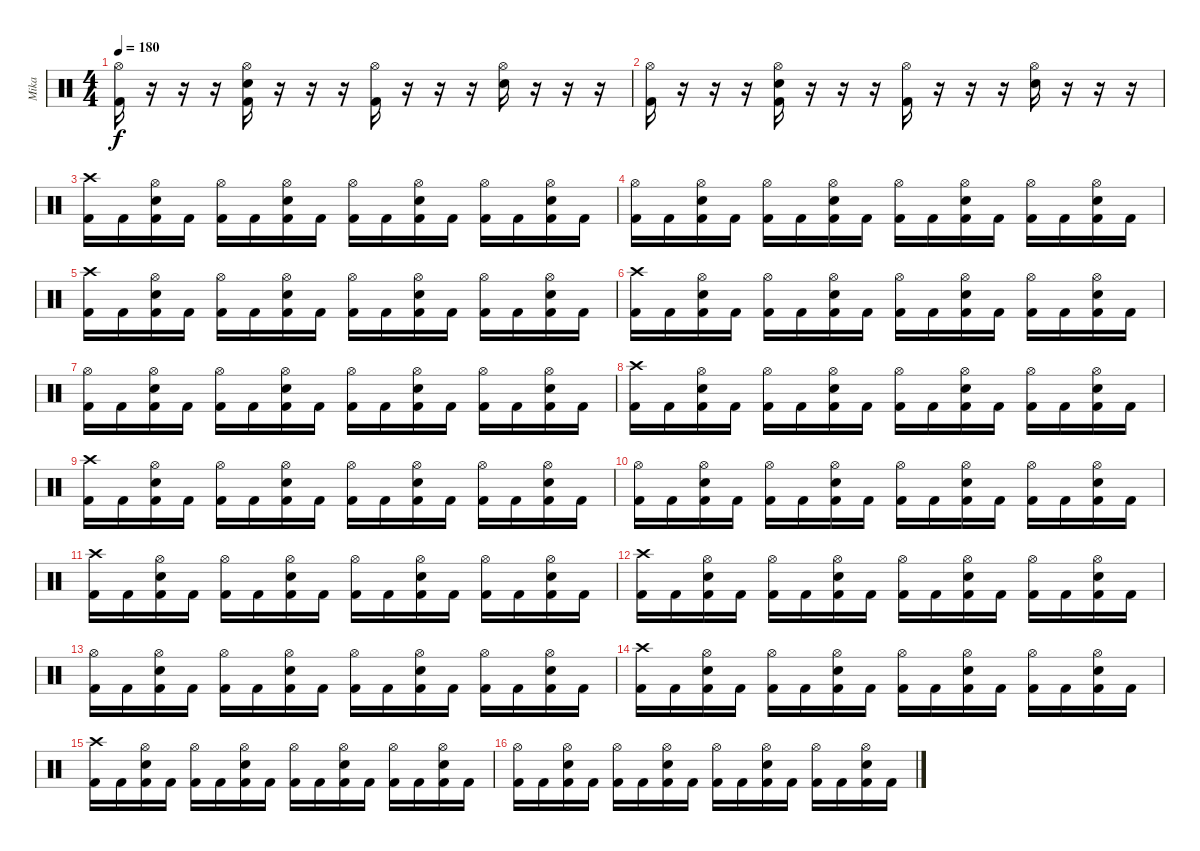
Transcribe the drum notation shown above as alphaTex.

\track ("Mika" "Mika") {instrument percussion}
\staff {score}
\articulation defaults
\ts (4 4)
\tempo 180
\clef neutral
\ks c
("Hi-Hat (open)" "Kick (hit) 2").16{dy f} r.16 r.16 r.16 ("Hi-Hat (open)" "Electric Snare (hit)" "Kick (hit) 2").16 r.16 r.16 r.16 ("Hi-Hat (open)" "Kick (hit) 2").16 r.16 r.16 r.16 ("Hi-Hat (open)" "Electric Snare (hit)").16 r.16 r.16 r.16 |
("Hi-Hat (open)" "Kick (hit) 2").16 r.16 r.16 r.16 ("Hi-Hat (open)" "Electric Snare (hit)" "Kick (hit) 2").16 r.16 r.16 r.16 ("Hi-Hat (open)" "Kick (hit) 2").16 r.16 r.16 r.16 ("Hi-Hat (open)" "Electric Snare (hit)").16 r.16 r.16 r.16 |
("Crash high (hit)" "Kick (hit) 2").16 "Kick (hit) 2".16 ("Hi-Hat (open)" "Electric Snare (hit)" "Kick (hit) 2").16 "Kick (hit) 2".16 ("Hi-Hat (open)" "Kick (hit) 2").16 "Kick (hit) 2".16 ("Hi-Hat (open)" "Electric Snare (hit)" "Kick (hit) 2").16 "Kick (hit) 2".16 ("Hi-Hat (open)" "Kick (hit) 2").16 "Kick (hit) 2".16 ("Hi-Hat (open)" "Electric Snare (hit)" "Kick (hit) 2").16 "Kick (hit) 2".16 ("Hi-Hat (open)" "Kick (hit) 2").16 "Kick (hit) 2".16 ("Hi-Hat (open)" "Electric Snare (hit)" "Kick (hit) 2").16 "Kick (hit) 2".16 |
("Hi-Hat (open)" "Kick (hit) 2").16 "Kick (hit) 2".16 ("Hi-Hat (open)" "Electric Snare (hit)" "Kick (hit) 2").16 "Kick (hit) 2".16 ("Hi-Hat (open)" "Kick (hit) 2").16 "Kick (hit) 2".16 ("Hi-Hat (open)" "Electric Snare (hit)" "Kick (hit) 2").16 "Kick (hit) 2".16 ("Hi-Hat (open)" "Kick (hit) 2").16 "Kick (hit) 2".16 ("Hi-Hat (open)" "Electric Snare (hit)" "Kick (hit) 2").16 "Kick (hit) 2".16 ("Hi-Hat (open)" "Kick (hit) 2").16 "Kick (hit) 2".16 ("Hi-Hat (open)" "Electric Snare (hit)" "Kick (hit) 2").16 "Kick (hit) 2".16 |
("Crash high (hit)" "Kick (hit) 2").16 "Kick (hit) 2".16 ("Hi-Hat (open)" "Electric Snare (hit)" "Kick (hit) 2").16 "Kick (hit) 2".16 ("Hi-Hat (open)" "Kick (hit) 2").16 "Kick (hit) 2".16 ("Hi-Hat (open)" "Electric Snare (hit)" "Kick (hit) 2").16 "Kick (hit) 2".16 ("Hi-Hat (open)" "Kick (hit) 2").16 "Kick (hit) 2".16 ("Hi-Hat (open)" "Electric Snare (hit)" "Kick (hit) 2").16 "Kick (hit) 2".16 ("Hi-Hat (open)" "Kick (hit) 2").16 "Kick (hit) 2".16 ("Hi-Hat (open)" "Electric Snare (hit)" "Kick (hit) 2").16 "Kick (hit) 2".16 |
("Crash high (hit)" "Kick (hit) 2").16 "Kick (hit) 2".16 ("Hi-Hat (open)" "Electric Snare (hit)" "Kick (hit) 2").16 "Kick (hit) 2".16 ("Hi-Hat (open)" "Kick (hit) 2").16 "Kick (hit) 2".16 ("Hi-Hat (open)" "Electric Snare (hit)" "Kick (hit) 2").16 "Kick (hit) 2".16 ("Hi-Hat (open)" "Kick (hit) 2").16 "Kick (hit) 2".16 ("Hi-Hat (open)" "Electric Snare (hit)" "Kick (hit) 2").16 "Kick (hit) 2".16 ("Hi-Hat (open)" "Kick (hit) 2").16 "Kick (hit) 2".16 ("Hi-Hat (open)" "Electric Snare (hit)" "Kick (hit) 2").16 "Kick (hit) 2".16 |
("Hi-Hat (open)" "Kick (hit) 2").16 "Kick (hit) 2".16 ("Hi-Hat (open)" "Electric Snare (hit)" "Kick (hit) 2").16 "Kick (hit) 2".16 ("Hi-Hat (open)" "Kick (hit) 2").16 "Kick (hit) 2".16 ("Hi-Hat (open)" "Electric Snare (hit)" "Kick (hit) 2").16 "Kick (hit) 2".16 ("Hi-Hat (open)" "Kick (hit) 2").16 "Kick (hit) 2".16 ("Hi-Hat (open)" "Electric Snare (hit)" "Kick (hit) 2").16 "Kick (hit) 2".16 ("Hi-Hat (open)" "Kick (hit) 2").16 "Kick (hit) 2".16 ("Hi-Hat (open)" "Electric Snare (hit)" "Kick (hit) 2").16 "Kick (hit) 2".16 |
("Crash high (hit)" "Kick (hit) 2").16 "Kick (hit) 2".16 ("Hi-Hat (open)" "Electric Snare (hit)" "Kick (hit) 2").16 "Kick (hit) 2".16 ("Hi-Hat (open)" "Kick (hit) 2").16 "Kick (hit) 2".16 ("Hi-Hat (open)" "Electric Snare (hit)" "Kick (hit) 2").16 "Kick (hit) 2".16 ("Hi-Hat (open)" "Kick (hit) 2").16 "Kick (hit) 2".16 ("Hi-Hat (open)" "Electric Snare (hit)" "Kick (hit) 2").16 "Kick (hit) 2".16 ("Hi-Hat (open)" "Kick (hit) 2").16 "Kick (hit) 2".16 ("Hi-Hat (open)" "Electric Snare (hit)" "Kick (hit) 2").16 "Kick (hit) 2".16 |
("Crash high (hit)" "Kick (hit) 2").16 "Kick (hit) 2".16 ("Hi-Hat (open)" "Electric Snare (hit)" "Kick (hit) 2").16 "Kick (hit) 2".16 ("Hi-Hat (open)" "Kick (hit) 2").16 "Kick (hit) 2".16 ("Hi-Hat (open)" "Electric Snare (hit)" "Kick (hit) 2").16 "Kick (hit) 2".16 ("Hi-Hat (open)" "Kick (hit) 2").16 "Kick (hit) 2".16 ("Hi-Hat (open)" "Electric Snare (hit)" "Kick (hit) 2").16 "Kick (hit) 2".16 ("Hi-Hat (open)" "Kick (hit) 2").16 "Kick (hit) 2".16 ("Hi-Hat (open)" "Electric Snare (hit)" "Kick (hit) 2").16 "Kick (hit) 2".16 |
("Hi-Hat (open)" "Kick (hit) 2").16 "Kick (hit) 2".16 ("Hi-Hat (open)" "Electric Snare (hit)" "Kick (hit) 2").16 "Kick (hit) 2".16 ("Hi-Hat (open)" "Kick (hit) 2").16 "Kick (hit) 2".16 ("Hi-Hat (open)" "Electric Snare (hit)" "Kick (hit) 2").16 "Kick (hit) 2".16 ("Hi-Hat (open)" "Kick (hit) 2").16 "Kick (hit) 2".16 ("Hi-Hat (open)" "Electric Snare (hit)" "Kick (hit) 2").16 "Kick (hit) 2".16 ("Hi-Hat (open)" "Kick (hit) 2").16 "Kick (hit) 2".16 ("Hi-Hat (open)" "Electric Snare (hit)" "Kick (hit) 2").16 "Kick (hit) 2".16 |
("Crash high (hit)" "Kick (hit) 2").16 "Kick (hit) 2".16 ("Hi-Hat (open)" "Electric Snare (hit)" "Kick (hit) 2").16 "Kick (hit) 2".16 ("Hi-Hat (open)" "Kick (hit) 2").16 "Kick (hit) 2".16 ("Hi-Hat (open)" "Electric Snare (hit)" "Kick (hit) 2").16 "Kick (hit) 2".16 ("Hi-Hat (open)" "Kick (hit) 2").16 "Kick (hit) 2".16 ("Hi-Hat (open)" "Electric Snare (hit)" "Kick (hit) 2").16 "Kick (hit) 2".16 ("Hi-Hat (open)" "Kick (hit) 2").16 "Kick (hit) 2".16 ("Hi-Hat (open)" "Electric Snare (hit)" "Kick (hit) 2").16 "Kick (hit) 2".16 |
("Crash high (hit)" "Kick (hit) 2").16 "Kick (hit) 2".16 ("Hi-Hat (open)" "Electric Snare (hit)" "Kick (hit) 2").16 "Kick (hit) 2".16 ("Hi-Hat (open)" "Kick (hit) 2").16 "Kick (hit) 2".16 ("Hi-Hat (open)" "Electric Snare (hit)" "Kick (hit) 2").16 "Kick (hit) 2".16 ("Hi-Hat (open)" "Kick (hit) 2").16 "Kick (hit) 2".16 ("Hi-Hat (open)" "Electric Snare (hit)" "Kick (hit) 2").16 "Kick (hit) 2".16 ("Hi-Hat (open)" "Kick (hit) 2").16 "Kick (hit) 2".16 ("Hi-Hat (open)" "Electric Snare (hit)" "Kick (hit) 2").16 "Kick (hit) 2".16 |
("Hi-Hat (open)" "Kick (hit) 2").16 "Kick (hit) 2".16 ("Hi-Hat (open)" "Electric Snare (hit)" "Kick (hit) 2").16 "Kick (hit) 2".16 ("Hi-Hat (open)" "Kick (hit) 2").16 "Kick (hit) 2".16 ("Hi-Hat (open)" "Electric Snare (hit)" "Kick (hit) 2").16 "Kick (hit) 2".16 ("Hi-Hat (open)" "Kick (hit) 2").16 "Kick (hit) 2".16 ("Hi-Hat (open)" "Electric Snare (hit)" "Kick (hit) 2").16 "Kick (hit) 2".16 ("Hi-Hat (open)" "Kick (hit) 2").16 "Kick (hit) 2".16 ("Hi-Hat (open)" "Electric Snare (hit)" "Kick (hit) 2").16 "Kick (hit) 2".16 |
("Crash high (hit)" "Kick (hit) 2").16 "Kick (hit) 2".16 ("Hi-Hat (open)" "Electric Snare (hit)" "Kick (hit) 2").16 "Kick (hit) 2".16 ("Hi-Hat (open)" "Kick (hit) 2").16 "Kick (hit) 2".16 ("Hi-Hat (open)" "Electric Snare (hit)" "Kick (hit) 2").16 "Kick (hit) 2".16 ("Hi-Hat (open)" "Kick (hit) 2").16 "Kick (hit) 2".16 ("Hi-Hat (open)" "Electric Snare (hit)" "Kick (hit) 2").16 "Kick (hit) 2".16 ("Hi-Hat (open)" "Kick (hit) 2").16 "Kick (hit) 2".16 ("Hi-Hat (open)" "Electric Snare (hit)" "Kick (hit) 2").16 "Kick (hit) 2".16 |
("Crash high (hit)" "Kick (hit) 2").16 "Kick (hit) 2".16 ("Hi-Hat (open)" "Electric Snare (hit)" "Kick (hit) 2").16 "Kick (hit) 2".16 ("Hi-Hat (open)" "Kick (hit) 2").16 "Kick (hit) 2".16 ("Hi-Hat (open)" "Electric Snare (hit)" "Kick (hit) 2").16 "Kick (hit) 2".16 ("Hi-Hat (open)" "Kick (hit) 2").16 "Kick (hit) 2".16 ("Hi-Hat (open)" "Electric Snare (hit)" "Kick (hit) 2").16 "Kick (hit) 2".16 ("Hi-Hat (open)" "Kick (hit) 2").16 "Kick (hit) 2".16 ("Hi-Hat (open)" "Electric Snare (hit)" "Kick (hit) 2").16 "Kick (hit) 2".16 |
("Hi-Hat (open)" "Kick (hit) 2").16 "Kick (hit) 2".16 ("Hi-Hat (open)" "Electric Snare (hit)" "Kick (hit) 2").16 "Kick (hit) 2".16 ("Hi-Hat (open)" "Kick (hit) 2").16 "Kick (hit) 2".16 ("Hi-Hat (open)" "Electric Snare (hit)" "Kick (hit) 2").16 "Kick (hit) 2".16 ("Hi-Hat (open)" "Kick (hit) 2").16 "Kick (hit) 2".16 ("Hi-Hat (open)" "Electric Snare (hit)" "Kick (hit) 2").16 "Kick (hit) 2".16 ("Hi-Hat (open)" "Kick (hit) 2").16 "Kick (hit) 2".16 ("Hi-Hat (open)" "Electric Snare (hit)" "Kick (hit) 2").16 "Kick (hit) 2".16
